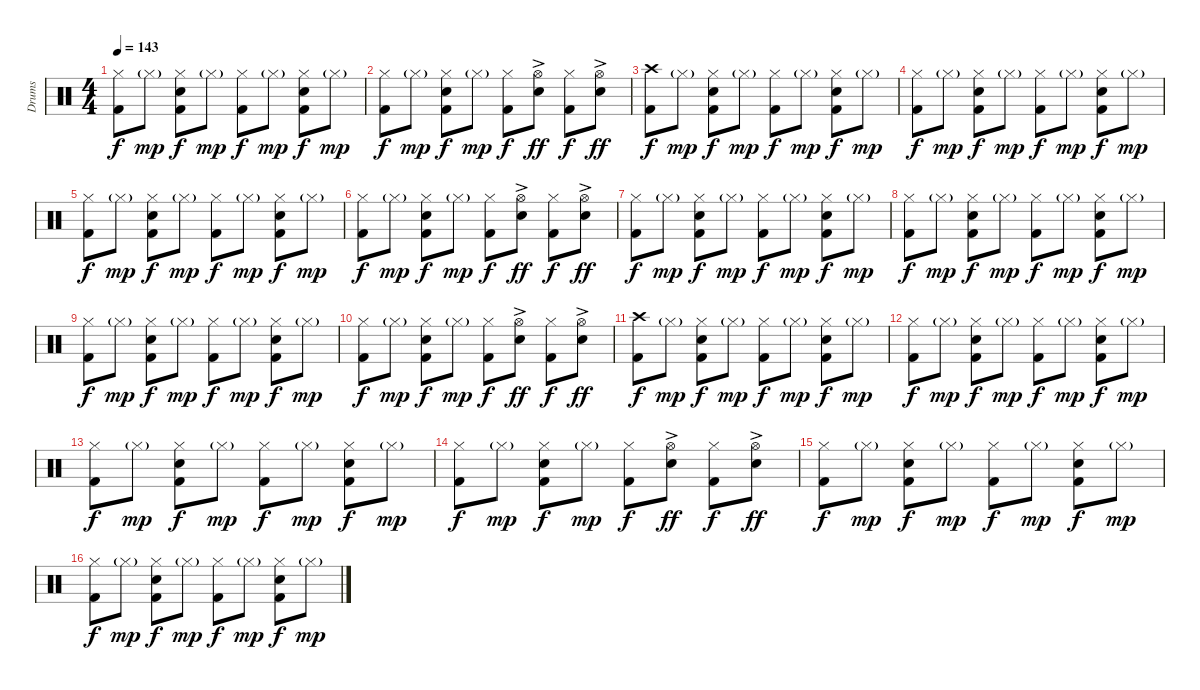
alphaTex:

\track ("Drums" "Drums") {instrument percussion}
\staff {score}
\articulation defaults
\ts (4 4)
\tempo 143
\clef neutral
\ks c
("Hi-Hat (closed)" "Kick (hit) 2").8{dy f} "Hi-Hat (closed)"{g}.8{dy mp} ("Hi-Hat (closed)" "Electric Snare (hit)" "Kick (hit) 2").8{dy f} "Hi-Hat (closed)"{g}.8{dy mp} ("Hi-Hat (closed)" "Kick (hit) 2").8{dy f} "Hi-Hat (closed)"{g}.8{dy mp} ("Hi-Hat (closed)" "Electric Snare (hit)" "Kick (hit) 2").8{dy f} "Hi-Hat (closed)"{g}.8{dy mp} |
("Hi-Hat (closed)" "Kick (hit) 2").8{dy f} "Hi-Hat (closed)"{g}.8{dy mp} ("Hi-Hat (closed)" "Electric Snare (hit)" "Kick (hit) 2").8{dy f} "Hi-Hat (closed)"{g}.8{dy mp} ("Hi-Hat (closed)" "Kick (hit) 2").8{dy f} ("Hi-Hat (open)"{ac} "Electric Snare (hit)").8{dy ff} ("Hi-Hat (closed)" "Kick (hit) 2").8{dy f} ("Hi-Hat (open)"{ac} "Electric Snare (hit)").8{dy ff} |
("Crash high (hit)" "Kick (hit) 2").8{dy f} "Hi-Hat (closed)"{g}.8{dy mp} ("Hi-Hat (closed)" "Electric Snare (hit)" "Kick (hit) 2").8{dy f} "Hi-Hat (closed)"{g}.8{dy mp} ("Hi-Hat (closed)" "Kick (hit) 2").8{dy f} "Hi-Hat (closed)"{g}.8{dy mp} ("Hi-Hat (closed)" "Electric Snare (hit)" "Kick (hit) 2").8{dy f} "Hi-Hat (closed)"{g}.8{dy mp} |
("Hi-Hat (closed)" "Kick (hit) 2").8{dy f} "Hi-Hat (closed)"{g}.8{dy mp} ("Hi-Hat (closed)" "Electric Snare (hit)" "Kick (hit) 2").8{dy f} "Hi-Hat (closed)"{g}.8{dy mp} ("Hi-Hat (closed)" "Kick (hit) 2").8{dy f} "Hi-Hat (closed)"{g}.8{dy mp} ("Hi-Hat (closed)" "Electric Snare (hit)" "Kick (hit) 2").8{dy f} "Hi-Hat (closed)"{g}.8{dy mp} |
("Hi-Hat (closed)" "Kick (hit) 2").8{dy f} "Hi-Hat (closed)"{g}.8{dy mp} ("Hi-Hat (closed)" "Electric Snare (hit)" "Kick (hit) 2").8{dy f} "Hi-Hat (closed)"{g}.8{dy mp} ("Hi-Hat (closed)" "Kick (hit) 2").8{dy f} "Hi-Hat (closed)"{g}.8{dy mp} ("Hi-Hat (closed)" "Electric Snare (hit)" "Kick (hit) 2").8{dy f} "Hi-Hat (closed)"{g}.8{dy mp} |
("Hi-Hat (closed)" "Kick (hit) 2").8{dy f} "Hi-Hat (closed)"{g}.8{dy mp} ("Hi-Hat (closed)" "Electric Snare (hit)" "Kick (hit) 2").8{dy f} "Hi-Hat (closed)"{g}.8{dy mp} ("Hi-Hat (closed)" "Kick (hit) 2").8{dy f} ("Hi-Hat (open)"{ac} "Electric Snare (hit)").8{dy ff} ("Hi-Hat (closed)" "Kick (hit) 2").8{dy f} ("Hi-Hat (open)"{ac} "Electric Snare (hit)").8{dy ff} |
("Hi-Hat (closed)" "Kick (hit) 2").8{dy f} "Hi-Hat (closed)"{g}.8{dy mp} ("Hi-Hat (closed)" "Electric Snare (hit)" "Kick (hit) 2").8{dy f} "Hi-Hat (closed)"{g}.8{dy mp} ("Hi-Hat (closed)" "Kick (hit) 2").8{dy f} "Hi-Hat (closed)"{g}.8{dy mp} ("Hi-Hat (closed)" "Electric Snare (hit)" "Kick (hit) 2").8{dy f} "Hi-Hat (closed)"{g}.8{dy mp} |
("Hi-Hat (closed)" "Kick (hit) 2").8{dy f} "Hi-Hat (closed)"{g}.8{dy mp} ("Hi-Hat (closed)" "Electric Snare (hit)" "Kick (hit) 2").8{dy f} "Hi-Hat (closed)"{g}.8{dy mp} ("Hi-Hat (closed)" "Kick (hit) 2").8{dy f} "Hi-Hat (closed)"{g}.8{dy mp} ("Hi-Hat (closed)" "Electric Snare (hit)" "Kick (hit) 2").8{dy f} "Hi-Hat (closed)"{g}.8{dy mp} |
("Hi-Hat (closed)" "Kick (hit) 2").8{dy f} "Hi-Hat (closed)"{g}.8{dy mp} ("Hi-Hat (closed)" "Electric Snare (hit)" "Kick (hit) 2").8{dy f} "Hi-Hat (closed)"{g}.8{dy mp} ("Hi-Hat (closed)" "Kick (hit) 2").8{dy f} "Hi-Hat (closed)"{g}.8{dy mp} ("Hi-Hat (closed)" "Electric Snare (hit)" "Kick (hit) 2").8{dy f} "Hi-Hat (closed)"{g}.8{dy mp} |
("Hi-Hat (closed)" "Kick (hit) 2").8{dy f} "Hi-Hat (closed)"{g}.8{dy mp} ("Hi-Hat (closed)" "Electric Snare (hit)" "Kick (hit) 2").8{dy f} "Hi-Hat (closed)"{g}.8{dy mp} ("Hi-Hat (closed)" "Kick (hit) 2").8{dy f} ("Hi-Hat (open)"{ac} "Electric Snare (hit)").8{dy ff} ("Hi-Hat (closed)" "Kick (hit) 2").8{dy f} ("Hi-Hat (open)"{ac} "Electric Snare (hit)").8{dy ff} |
("Crash high (hit)" "Kick (hit) 2").8{dy f} "Hi-Hat (closed)"{g}.8{dy mp} ("Hi-Hat (closed)" "Electric Snare (hit)" "Kick (hit) 2").8{dy f} "Hi-Hat (closed)"{g}.8{dy mp} ("Hi-Hat (closed)" "Kick (hit) 2").8{dy f} "Hi-Hat (closed)"{g}.8{dy mp} ("Hi-Hat (closed)" "Electric Snare (hit)" "Kick (hit) 2").8{dy f} "Hi-Hat (closed)"{g}.8{dy mp} |
("Hi-Hat (closed)" "Kick (hit) 2").8{dy f} "Hi-Hat (closed)"{g}.8{dy mp} ("Hi-Hat (closed)" "Electric Snare (hit)" "Kick (hit) 2").8{dy f} "Hi-Hat (closed)"{g}.8{dy mp} ("Hi-Hat (closed)" "Kick (hit) 2").8{dy f} "Hi-Hat (closed)"{g}.8{dy mp} ("Hi-Hat (closed)" "Electric Snare (hit)" "Kick (hit) 2").8{dy f} "Hi-Hat (closed)"{g}.8{dy mp} |
("Hi-Hat (closed)" "Kick (hit) 2").8{dy f} "Hi-Hat (closed)"{g}.8{dy mp} ("Hi-Hat (closed)" "Electric Snare (hit)" "Kick (hit) 2").8{dy f} "Hi-Hat (closed)"{g}.8{dy mp} ("Hi-Hat (closed)" "Kick (hit) 2").8{dy f} "Hi-Hat (closed)"{g}.8{dy mp} ("Hi-Hat (closed)" "Electric Snare (hit)" "Kick (hit) 2").8{dy f} "Hi-Hat (closed)"{g}.8{dy mp} |
("Hi-Hat (closed)" "Kick (hit) 2").8{dy f} "Hi-Hat (closed)"{g}.8{dy mp} ("Hi-Hat (closed)" "Electric Snare (hit)" "Kick (hit) 2").8{dy f} "Hi-Hat (closed)"{g}.8{dy mp} ("Hi-Hat (closed)" "Kick (hit) 2").8{dy f} ("Hi-Hat (open)"{ac} "Electric Snare (hit)").8{dy ff} ("Hi-Hat (closed)" "Kick (hit) 2").8{dy f} ("Hi-Hat (open)"{ac} "Electric Snare (hit)").8{dy ff} |
("Hi-Hat (closed)" "Kick (hit) 2").8{dy f} "Hi-Hat (closed)"{g}.8{dy mp} ("Hi-Hat (closed)" "Electric Snare (hit)" "Kick (hit) 2").8{dy f} "Hi-Hat (closed)"{g}.8{dy mp} ("Hi-Hat (closed)" "Kick (hit) 2").8{dy f} "Hi-Hat (closed)"{g}.8{dy mp} ("Hi-Hat (closed)" "Electric Snare (hit)" "Kick (hit) 2").8{dy f} "Hi-Hat (closed)"{g}.8{dy mp} |
("Hi-Hat (closed)" "Kick (hit) 2").8{dy f} "Hi-Hat (closed)"{g}.8{dy mp} ("Hi-Hat (closed)" "Electric Snare (hit)" "Kick (hit) 2").8{dy f} "Hi-Hat (closed)"{g}.8{dy mp} ("Hi-Hat (closed)" "Kick (hit) 2").8{dy f} "Hi-Hat (closed)"{g}.8{dy mp} ("Hi-Hat (closed)" "Electric Snare (hit)" "Kick (hit) 2").8{dy f} "Hi-Hat (closed)"{g}.8{dy mp}
